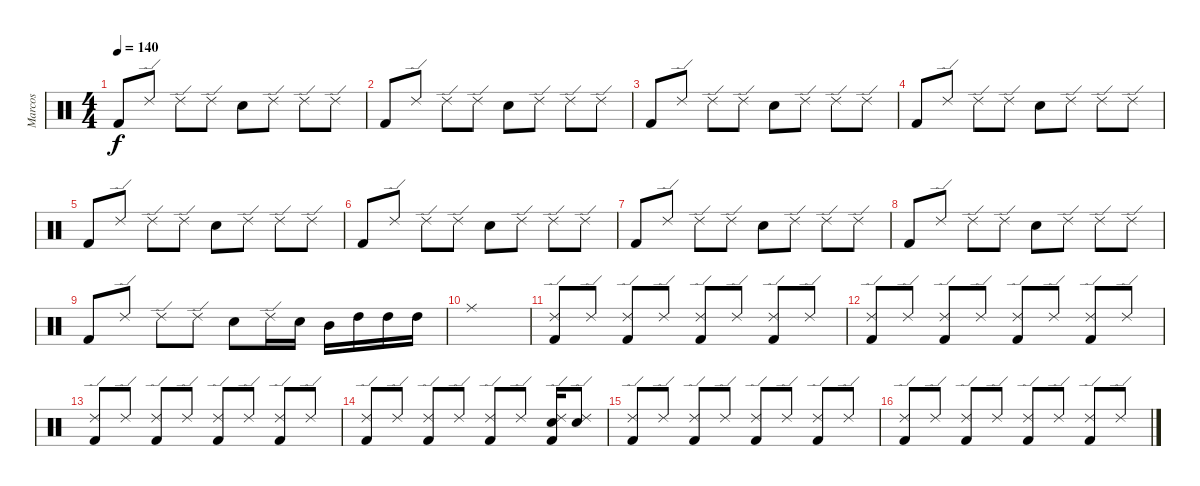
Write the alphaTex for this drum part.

\track ("Marcos" "Marcos") {instrument percussion}
\staff {score}
\articulation defaults
\ts (4 4)
\tempo 140
\clef neutral
\ks c "Kick (hit) 2".8{dy f} "Ride (edge) 2".8 "Ride (edge) 2".8 "Ride (edge) 2".8 "Electric Snare (hit)".8 "Ride (edge) 2".8 "Ride (edge) 2".8 "Ride (edge) 2".8
|
"Kick (hit) 2".8 "Ride (edge) 2".8 "Ride (edge) 2".8 "Ride (edge) 2".8 "Electric Snare (hit)".8 "Ride (edge) 2".8 "Ride (edge) 2".8 "Ride (edge) 2".8 |
"Kick (hit) 2".8 "Ride (edge) 2".8 "Ride (edge) 2".8 "Ride (edge) 2".8 "Electric Snare (hit)".8 "Ride (edge) 2".8 "Ride (edge) 2".8 "Ride (edge) 2".8 |
"Kick (hit) 2".8 "Ride (edge) 2".8 "Ride (edge) 2".8 "Ride (edge) 2".8 "Electric Snare (hit)".8 "Ride (edge) 2".8 "Ride (edge) 2".8 "Ride (edge) 2".8 |
"Kick (hit) 2".8 "Ride (edge) 2".8 "Ride (edge) 2".8 "Ride (edge) 2".8 "Electric Snare (hit)".8 "Ride (edge) 2".8 "Ride (edge) 2".8 "Ride (edge) 2".8 |
"Kick (hit) 2".8 "Ride (edge) 2".8 "Ride (edge) 2".8 "Ride (edge) 2".8 "Electric Snare (hit)".8 "Ride (edge) 2".8 "Ride (edge) 2".8 "Ride (edge) 2".8 |
"Kick (hit) 2".8 "Ride (edge) 2".8 "Ride (edge) 2".8 "Ride (edge) 2".8 "Electric Snare (hit)".8 "Ride (edge) 2".8 "Ride (edge) 2".8 "Ride (edge) 2".8 |
"Kick (hit) 2".8 "Ride (edge) 2".8 "Ride (edge) 2".8 "Ride (edge) 2".8 "Electric Snare (hit)".8 "Ride (edge) 2".8 "Ride (edge) 2".8 "Ride (edge) 2".8 |
"Kick (hit) 2".8 "Ride (edge) 2".8 "Ride (edge) 2".8 "Ride (edge) 2".8 "Electric Snare (hit)".8 "Ride (edge) 2".16 "Electric Snare (hit)".16 "Mid Tom (hit)".16 "High Tom (hit)".16 "High Tom (hit)".16 "High Tom (hit)".16 |
"Ride (middle)".1 |
("Ride (edge) 2" "Kick (hit) 2").8 "Ride (edge) 2".8 ("Ride (edge) 2" "Kick (hit) 2").8 "Ride (edge) 2".8 ("Ride (edge) 2" "Kick (hit) 2").8 "Ride (edge) 2".8 ("Ride (edge) 2" "Kick (hit) 2").8 "Ride (edge) 2".8 |
("Ride (edge) 2" "Kick (hit) 2").8 "Ride (edge) 2".8 ("Ride (edge) 2" "Kick (hit) 2").8 "Ride (edge) 2".8 ("Ride (edge) 2" "Kick (hit) 2").8 "Ride (edge) 2".8 ("Ride (edge) 2" "Kick (hit) 2").8 "Ride (edge) 2".8 |
("Ride (edge) 2" "Kick (hit) 2").8 "Ride (edge) 2".8 ("Ride (edge) 2" "Kick (hit) 2").8 "Ride (edge) 2".8 ("Ride (edge) 2" "Kick (hit) 2").8 "Ride (edge) 2".8 ("Ride (edge) 2" "Kick (hit) 2").8 "Ride (edge) 2".8 |
("Ride (edge) 2" "Kick (hit) 2").8 "Ride (edge) 2".8 ("Ride (edge) 2" "Kick (hit) 2").8 "Ride (edge) 2".8 ("Ride (edge) 2" "Kick (hit) 2").8 "Ride (edge) 2".8 ("Ride (edge) 2" "Kick (hit) 2" "Electric Snare (hit)").16 ("Ride (edge) 2" "Electric Snare (hit)").8 |
("Ride (edge) 2" "Kick (hit) 2").8 "Ride (edge) 2".8 ("Ride (edge) 2" "Kick (hit) 2").8 "Ride (edge) 2".8 ("Ride (edge) 2" "Kick (hit) 2").8 "Ride (edge) 2".8 ("Ride (edge) 2" "Kick (hit) 2").8 "Ride (edge) 2".8 |
("Ride (edge) 2" "Kick (hit) 2").8 "Ride (edge) 2".8 ("Ride (edge) 2" "Kick (hit) 2").8 "Ride (edge) 2".8 ("Ride (edge) 2" "Kick (hit) 2").8 "Ride (edge) 2".8 ("Ride (edge) 2" "Kick (hit) 2").8 "Ride (edge) 2".8
